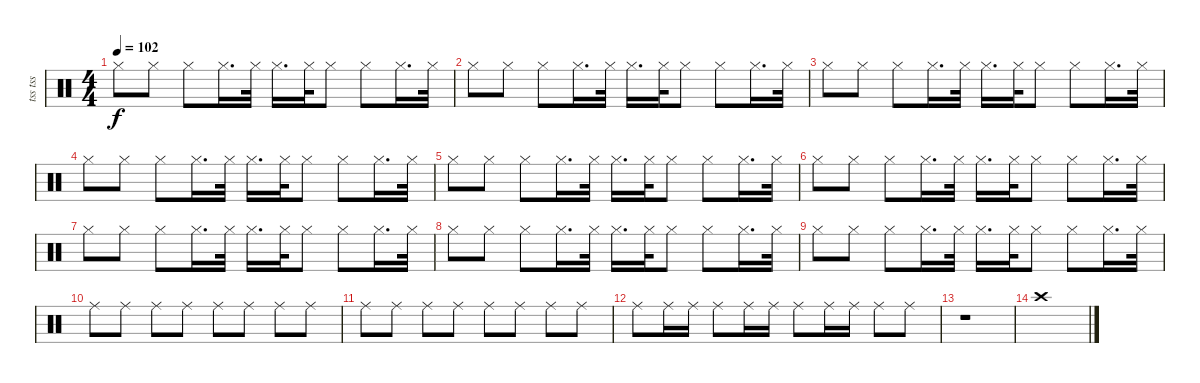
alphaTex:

\track ("tss tss" "tss tss") {instrument percussion}
\staff {score}
\articulation defaults
\ts (4 4)
\tempo 102
\clef neutral
\ks c "Hi-Hat (closed)".8{dy f} "Hi-Hat (closed)".8 "Hi-Hat (closed)".8 "Hi-Hat (closed)".16{d} "Hi-Hat (closed)".32 "Hi-Hat (closed)".16{d} "Hi-Hat (closed)".32 "Hi-Hat (closed)".8 "Hi-Hat (closed)".8 "Hi-Hat (closed)".16{d} "Hi-Hat (closed)".32
|
"Hi-Hat (closed)".8 "Hi-Hat (closed)".8 "Hi-Hat (closed)".8 "Hi-Hat (closed)".16{d} "Hi-Hat (closed)".32 "Hi-Hat (closed)".16{d} "Hi-Hat (closed)".32 "Hi-Hat (closed)".8 "Hi-Hat (closed)".8 "Hi-Hat (closed)".16{d} "Hi-Hat (closed)".32 |
"Hi-Hat (closed)".8 "Hi-Hat (closed)".8 "Hi-Hat (closed)".8 "Hi-Hat (closed)".16{d} "Hi-Hat (closed)".32 "Hi-Hat (closed)".16{d} "Hi-Hat (closed)".32 "Hi-Hat (closed)".8 "Hi-Hat (closed)".8 "Hi-Hat (closed)".16{d} "Hi-Hat (closed)".32 |
"Hi-Hat (closed)".8 "Hi-Hat (closed)".8 "Hi-Hat (closed)".8 "Hi-Hat (closed)".16{d} "Hi-Hat (closed)".32 "Hi-Hat (closed)".16{d} "Hi-Hat (closed)".32 "Hi-Hat (closed)".8 "Hi-Hat (closed)".8 "Hi-Hat (closed)".16{d} "Hi-Hat (closed)".32 |
"Hi-Hat (closed)".8 "Hi-Hat (closed)".8 "Hi-Hat (closed)".8 "Hi-Hat (closed)".16{d} "Hi-Hat (closed)".32 "Hi-Hat (closed)".16{d} "Hi-Hat (closed)".32 "Hi-Hat (closed)".8 "Hi-Hat (closed)".8 "Hi-Hat (closed)".16{d} "Hi-Hat (closed)".32 |
"Hi-Hat (closed)".8 "Hi-Hat (closed)".8 "Hi-Hat (closed)".8 "Hi-Hat (closed)".16{d} "Hi-Hat (closed)".32 "Hi-Hat (closed)".16{d} "Hi-Hat (closed)".32 "Hi-Hat (closed)".8 "Hi-Hat (closed)".8 "Hi-Hat (closed)".16{d} "Hi-Hat (closed)".32 |
"Hi-Hat (closed)".8 "Hi-Hat (closed)".8 "Hi-Hat (closed)".8 "Hi-Hat (closed)".16{d} "Hi-Hat (closed)".32 "Hi-Hat (closed)".16{d} "Hi-Hat (closed)".32 "Hi-Hat (closed)".8 "Hi-Hat (closed)".8 "Hi-Hat (closed)".16{d} "Hi-Hat (closed)".32 |
"Hi-Hat (closed)".8 "Hi-Hat (closed)".8 "Hi-Hat (closed)".8 "Hi-Hat (closed)".16{d} "Hi-Hat (closed)".32 "Hi-Hat (closed)".16{d} "Hi-Hat (closed)".32 "Hi-Hat (closed)".8 "Hi-Hat (closed)".8 "Hi-Hat (closed)".16{d} "Hi-Hat (closed)".32 |
"Hi-Hat (closed)".8 "Hi-Hat (closed)".8 "Hi-Hat (closed)".8 "Hi-Hat (closed)".16{d} "Hi-Hat (closed)".32 "Hi-Hat (closed)".16{d} "Hi-Hat (closed)".32 "Hi-Hat (closed)".8 "Hi-Hat (closed)".8 "Hi-Hat (closed)".16{d} "Hi-Hat (closed)".32 |
"Ride (middle)".8 "Ride (middle)".8 "Ride (middle)".8 "Ride (middle)".8 "Ride (middle)".8 "Ride (middle)".8 "Ride (middle)".8 "Ride (middle)".8 |
"Ride (middle)".8 "Ride (middle)".8 "Ride (middle)".8 "Ride (middle)".8 "Ride (middle)".8 "Ride (middle)".8 "Ride (middle)".8 "Ride (middle)".8 |
"Ride (middle)".8 "Ride (middle)".16 "Ride (middle)".16 "Ride (middle)".8 "Ride (middle)".16 "Ride (middle)".16 "Ride (middle)".8 "Ride (middle)".16 "Ride (middle)".16 "Ride (middle)".8 "Ride (middle)".8 |
r.1 |
"Crash high (hit)".1
